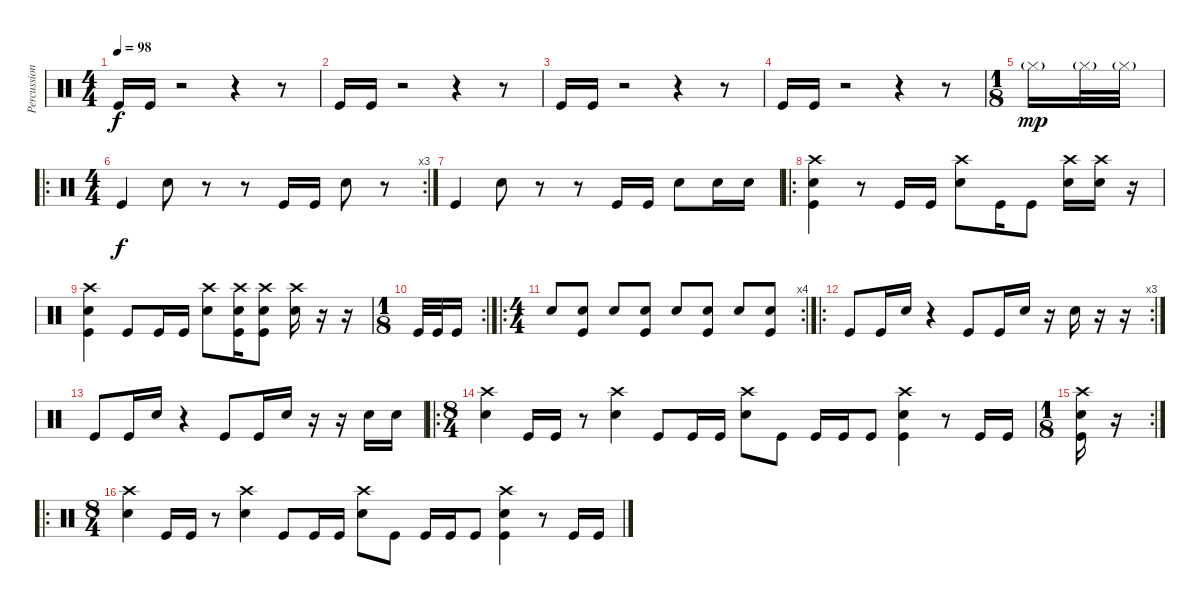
\track ("Percussion" "Percussion") {instrument percussion}
\staff {score}
\articulation defaults
\ts (4 4)
\tempo 98
\clef neutral
\ks c "Kick (hit)".16{dy f} "Kick (hit)".16
r.2 r.4 r.8 |
"Kick (hit)".16 "Kick (hit)".16 r.2 r.4 r.8 |
"Kick (hit)".16 "Kick (hit)".16 r.2 r.4 r.8 |
"Kick (hit)".16 "Kick (hit)".16 r.2 r.4 r.8 |
\ts (1 8)
"Hi-Hat (closed)"{g}.16{dy mp} "Hi-Hat (closed)"{g}.32 "Hi-Hat (closed)"{g}.32 |
\ro
\rc 3
\ts (4 4)
"Kick (hit)".4{dy f} "Electric Snare (hit)".8 r.8 r.8 "Kick (hit)".16 "Kick (hit)".16 "Electric Snare (hit)".8 r.8 |
"Kick (hit)".4 "Electric Snare (hit)".8 r.8 r.8 "Kick (hit)".16 "Kick (hit)".16 "Electric Snare (hit)".8 "Electric Snare (hit)".16 "Electric Snare (hit)".16 |
\ro
("Crash high (hit)" "Electric Snare (hit)" "Kick (hit)").4 r.8 "Kick (hit)".16 "Kick (hit)".16 ("Crash high (hit)" "Electric Snare (hit)").8 "Kick (hit)".16 "Kick (hit)".8 ("Crash high (hit)" "Electric Snare (hit)").16 ("Crash high (hit)" "Electric Snare (hit)").16 r.16 |
("Crash high (hit)" "Electric Snare (hit)" "Kick (hit)").4 "Kick (hit)".8 "Kick (hit)".16 "Kick (hit)".16 ("Crash high (hit)" "Electric Snare (hit)").8 ("Crash high (hit)" "Electric Snare (hit)" "Kick (hit)").16 ("Crash high (hit)" "Electric Snare (hit)" "Kick (hit)").8 ("Crash high (hit)" "Electric Snare (hit)").16 r.16 r.16 |
\rc 2
\ts (1 8)
"Kick (hit)".32 "Kick (hit)".32 "Kick (hit)".16 |
\ro
\rc 4
\ts (4 4)
"Electric Snare (hit)".8 ("Electric Snare (hit)" "Kick (hit)").8 "Electric Snare (hit)".8 ("Electric Snare (hit)" "Kick (hit)").8 "Electric Snare (hit)".8 ("Electric Snare (hit)" "Kick (hit)").8 "Electric Snare (hit)".8 ("Electric Snare (hit)" "Kick (hit)").8 |
\ro
\rc 3 "Kick (hit)".8 "Kick (hit)".16 "Electric Snare (hit)".16
r.4 "Kick (hit)".8 "Kick (hit)".16 "Electric Snare (hit)".16 r.16 "Electric Snare (hit)".16 r.16 r.16 |
"Kick (hit)".8 "Kick (hit)".16 "Electric Snare (hit)".16 r.4 "Kick (hit)".8 "Kick (hit)".16 "Electric Snare (hit)".16 r.16 r.16 "Electric Snare (hit)".16 "Electric Snare (hit)".16 |
\ro
\ts (8 4)
("Crash high (hit)" "Electric Snare (hit)").4 "Kick (hit)".16 "Kick (hit)".16 r.8 ("Crash high (hit)" "Electric Snare (hit)").4 "Kick (hit)".8 "Kick (hit)".16 "Kick (hit)".16 ("Crash high (hit)" "Electric Snare (hit)").8 "Kick (hit)".8 "Kick (hit)".16 "Kick (hit)".16 "Kick (hit)".8 ("Crash high (hit)" "Electric Snare (hit)" "Kick (hit)").4 r.8 "Kick (hit)".16 "Kick (hit)".16 |
\rc 2
\ts (1 8)
("Crash high (hit)" "Electric Snare (hit)" "Kick (hit)").16 r.16 |
\ro
\ts (8 4)
("Crash high (hit)" "Electric Snare (hit)").4 "Kick (hit)".16 "Kick (hit)".16 r.8 ("Crash high (hit)" "Electric Snare (hit)").4 "Kick (hit)".8 "Kick (hit)".16 "Kick (hit)".16 ("Crash high (hit)" "Electric Snare (hit)").8 "Kick (hit)".8 "Kick (hit)".16 "Kick (hit)".16 "Kick (hit)".8 ("Crash high (hit)" "Electric Snare (hit)" "Kick (hit)").4 r.8 "Kick (hit)".16 "Kick (hit)".16
